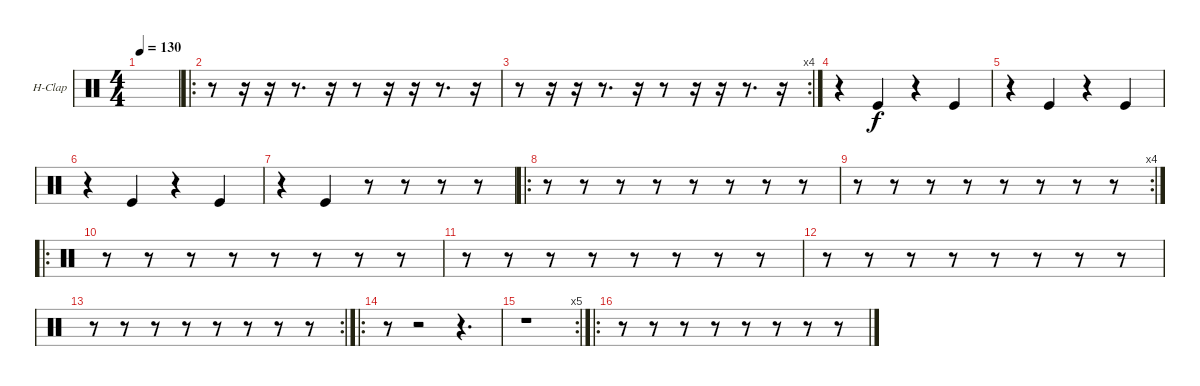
\bracketExtendMode groupsimilarinstruments
\firstSystemTrackNameOrientation horizontal
\otherSystemsTrackNameOrientation horizontal
\track ("Hand Clap" "H-Clap") {instrument percussion}
\staff {score}
\articulation defaults
\ts (4 4)
\tempo 130
\clef neutral
\ks c
|
\ro
r.8 r.16 r.16 r.8{d} r.16 r.8 r.16 r.16 r.8{d} r.16 |
\rc 4
r.8 r.16 r.16 r.8{d} r.16 r.8 r.16 r.16 r.8{d} r.16 |
r.4 "Kick (hit)".4 r.4 "Kick (hit)".4 |
r.4 "Kick (hit)".4 r.4 "Kick (hit)".4 |
r.4 "Kick (hit)".4 r.4 "Kick (hit)".4 |
r.4 "Kick (hit)".4 r.8 r.8 r.8 r.8 |
\ro
r.8 r.8 r.8 r.8 r.8 r.8 r.8 r.8 |
\rc 4
r.8 r.8 r.8 r.8 r.8 r.8 r.8 r.8 |
\ro
r.8 r.8 r.8 r.8 r.8 r.8 r.8 r.8 |
r.8 r.8 r.8 r.8 r.8 r.8 r.8 r.8 |
r.8 r.8 r.8 r.8 r.8 r.8 r.8 r.8 |
\rc 2
r.8 r.8 r.8 r.8 r.8 r.8 r.8 r.8 |
\ro
r.8 r.2 r.4{d} |
\rc 5
r.1 |
\ro
r.8 r.8 r.8 r.8 r.8 r.8 r.8 r.8
